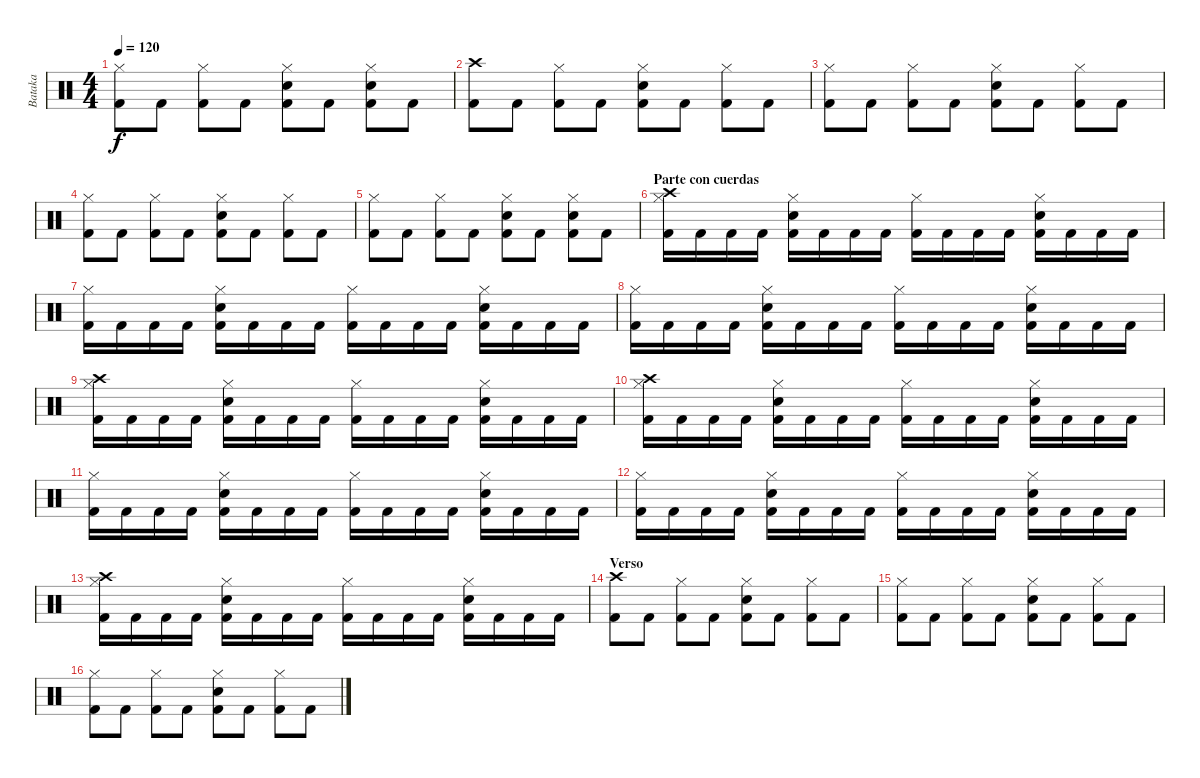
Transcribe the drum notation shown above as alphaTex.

\track ("Bataka" "Bataka") {instrument percussion}
\staff {score}
\articulation defaults
\ts (4 4)
\tempo 120
\clef neutral
\ks c
("Hi-Hat (closed)" "Kick (hit) 2").8{dy f} "Kick (hit) 2".8 ("Hi-Hat (closed)" "Kick (hit) 2").8 "Kick (hit) 2".8 ("Hi-Hat (closed)" "Snare (hit) 2" "Kick (hit) 2").8 "Kick (hit) 2".8 ("Hi-Hat (closed)" "Snare (hit) 2" "Kick (hit) 2").8 "Kick (hit) 2".8 |
("Crash high (hit)" "Kick (hit) 2").8 "Kick (hit) 2".8 ("Hi-Hat (closed)" "Kick (hit) 2").8 "Kick (hit) 2".8 ("Hi-Hat (closed)" "Snare (hit) 2" "Kick (hit) 2").8 "Kick (hit) 2".8 ("Hi-Hat (closed)" "Kick (hit) 2").8 "Kick (hit) 2".8 |
("Hi-Hat (closed)" "Kick (hit) 2").8 "Kick (hit) 2".8 ("Hi-Hat (closed)" "Kick (hit) 2").8 "Kick (hit) 2".8 ("Hi-Hat (closed)" "Snare (hit) 2" "Kick (hit) 2").8 "Kick (hit) 2".8 ("Hi-Hat (closed)" "Kick (hit) 2").8 "Kick (hit) 2".8 |
("Hi-Hat (closed)" "Kick (hit) 2").8 "Kick (hit) 2".8 ("Hi-Hat (closed)" "Kick (hit) 2").8 "Kick (hit) 2".8 ("Hi-Hat (closed)" "Snare (hit) 2" "Kick (hit) 2").8 "Kick (hit) 2".8 ("Hi-Hat (closed)" "Kick (hit) 2").8 "Kick (hit) 2".8 |
("Hi-Hat (closed)" "Kick (hit) 2").8 "Kick (hit) 2".8 ("Hi-Hat (closed)" "Kick (hit) 2").8 "Kick (hit) 2".8 ("Hi-Hat (closed)" "Snare (hit) 2" "Kick (hit) 2").8 "Kick (hit) 2".8 ("Hi-Hat (closed)" "Snare (hit) 2" "Kick (hit) 2").8 "Kick (hit) 2".8 |
\section ("" "Parte con cuerdas")
("Hi-Hat (closed)" "Crash high (hit)" "Kick (hit) 2").16 "Kick (hit) 2".16 "Kick (hit) 2".16 "Kick (hit) 2".16 ("Hi-Hat (closed)" "Snare (hit) 2" "Kick (hit) 2").16 "Kick (hit) 2".16 "Kick (hit) 2".16 "Kick (hit) 2".16 ("Hi-Hat (closed)" "Kick (hit) 2").16 "Kick (hit) 2".16 "Kick (hit) 2".16 "Kick (hit) 2".16 ("Hi-Hat (closed)" "Snare (hit) 2" "Kick (hit) 2").16 "Kick (hit) 2".16 "Kick (hit) 2".16 "Kick (hit) 2".16 |
("Hi-Hat (closed)" "Kick (hit) 2").16 "Kick (hit) 2".16 "Kick (hit) 2".16 "Kick (hit) 2".16 ("Hi-Hat (closed)" "Snare (hit) 2" "Kick (hit) 2").16 "Kick (hit) 2".16 "Kick (hit) 2".16 "Kick (hit) 2".16 ("Hi-Hat (closed)" "Kick (hit) 2").16 "Kick (hit) 2".16 "Kick (hit) 2".16 "Kick (hit) 2".16 ("Hi-Hat (closed)" "Snare (hit) 2" "Kick (hit) 2").16 "Kick (hit) 2".16 "Kick (hit) 2".16 "Kick (hit) 2".16 |
("Hi-Hat (closed)" "Kick (hit) 2").16 "Kick (hit) 2".16 "Kick (hit) 2".16 "Kick (hit) 2".16 ("Hi-Hat (closed)" "Snare (hit) 2" "Kick (hit) 2").16 "Kick (hit) 2".16 "Kick (hit) 2".16 "Kick (hit) 2".16 ("Hi-Hat (closed)" "Kick (hit) 2").16 "Kick (hit) 2".16 "Kick (hit) 2".16 "Kick (hit) 2".16 ("Hi-Hat (closed)" "Snare (hit) 2" "Kick (hit) 2").16 "Kick (hit) 2".16 "Kick (hit) 2".16 "Kick (hit) 2".16 |
("Hi-Hat (closed)" "Crash high (hit)" "Kick (hit) 2").16 "Kick (hit) 2".16 "Kick (hit) 2".16 "Kick (hit) 2".16 ("Hi-Hat (closed)" "Snare (hit) 2" "Kick (hit) 2").16 "Kick (hit) 2".16 "Kick (hit) 2".16 "Kick (hit) 2".16 ("Hi-Hat (closed)" "Kick (hit) 2").16 "Kick (hit) 2".16 "Kick (hit) 2".16 "Kick (hit) 2".16 ("Hi-Hat (closed)" "Snare (hit) 2" "Kick (hit) 2").16 "Kick (hit) 2".16 "Kick (hit) 2".16 "Kick (hit) 2".16 |
("Hi-Hat (closed)" "Crash high (hit)" "Kick (hit) 2").16 "Kick (hit) 2".16 "Kick (hit) 2".16 "Kick (hit) 2".16 ("Hi-Hat (closed)" "Snare (hit) 2" "Kick (hit) 2").16 "Kick (hit) 2".16 "Kick (hit) 2".16 "Kick (hit) 2".16 ("Hi-Hat (closed)" "Kick (hit) 2").16 "Kick (hit) 2".16 "Kick (hit) 2".16 "Kick (hit) 2".16 ("Hi-Hat (closed)" "Snare (hit) 2" "Kick (hit) 2").16 "Kick (hit) 2".16 "Kick (hit) 2".16 "Kick (hit) 2".16 |
("Hi-Hat (closed)" "Kick (hit) 2").16 "Kick (hit) 2".16 "Kick (hit) 2".16 "Kick (hit) 2".16 ("Hi-Hat (closed)" "Snare (hit) 2" "Kick (hit) 2").16 "Kick (hit) 2".16 "Kick (hit) 2".16 "Kick (hit) 2".16 ("Hi-Hat (closed)" "Kick (hit) 2").16 "Kick (hit) 2".16 "Kick (hit) 2".16 "Kick (hit) 2".16 ("Hi-Hat (closed)" "Snare (hit) 2" "Kick (hit) 2").16 "Kick (hit) 2".16 "Kick (hit) 2".16 "Kick (hit) 2".16 |
("Hi-Hat (closed)" "Kick (hit) 2").16 "Kick (hit) 2".16 "Kick (hit) 2".16 "Kick (hit) 2".16 ("Hi-Hat (closed)" "Snare (hit) 2" "Kick (hit) 2").16 "Kick (hit) 2".16 "Kick (hit) 2".16 "Kick (hit) 2".16 ("Hi-Hat (closed)" "Kick (hit) 2").16 "Kick (hit) 2".16 "Kick (hit) 2".16 "Kick (hit) 2".16 ("Hi-Hat (closed)" "Snare (hit) 2" "Kick (hit) 2").16 "Kick (hit) 2".16 "Kick (hit) 2".16 "Kick (hit) 2".16 |
("Hi-Hat (closed)" "Crash high (hit)" "Kick (hit) 2").16 "Kick (hit) 2".16 "Kick (hit) 2".16 "Kick (hit) 2".16 ("Hi-Hat (closed)" "Snare (hit) 2" "Kick (hit) 2").16 "Kick (hit) 2".16 "Kick (hit) 2".16 "Kick (hit) 2".16 ("Hi-Hat (closed)" "Kick (hit) 2").16 "Kick (hit) 2".16 "Kick (hit) 2".16 "Kick (hit) 2".16 ("Hi-Hat (closed)" "Snare (hit) 2" "Kick (hit) 2").16 "Kick (hit) 2".16 "Kick (hit) 2".16 "Kick (hit) 2".16 |
\section ("" "Verso")
("Crash high (hit)" "Kick (hit) 2").8 "Kick (hit) 2".8 ("Hi-Hat (closed)" "Kick (hit) 2").8 "Kick (hit) 2".8 ("Hi-Hat (closed)" "Snare (hit) 2" "Kick (hit) 2").8 "Kick (hit) 2".8 ("Hi-Hat (closed)" "Kick (hit) 2").8 "Kick (hit) 2".8 |
("Hi-Hat (closed)" "Kick (hit) 2").8 "Kick (hit) 2".8 ("Hi-Hat (closed)" "Kick (hit) 2").8 "Kick (hit) 2".8 ("Hi-Hat (closed)" "Snare (hit) 2" "Kick (hit) 2").8 "Kick (hit) 2".8 ("Hi-Hat (closed)" "Kick (hit) 2").8 "Kick (hit) 2".8 |
("Hi-Hat (closed)" "Kick (hit) 2").8 "Kick (hit) 2".8 ("Hi-Hat (closed)" "Kick (hit) 2").8 "Kick (hit) 2".8 ("Hi-Hat (closed)" "Snare (hit) 2" "Kick (hit) 2").8 "Kick (hit) 2".8 ("Hi-Hat (closed)" "Kick (hit) 2").8 "Kick (hit) 2".8
